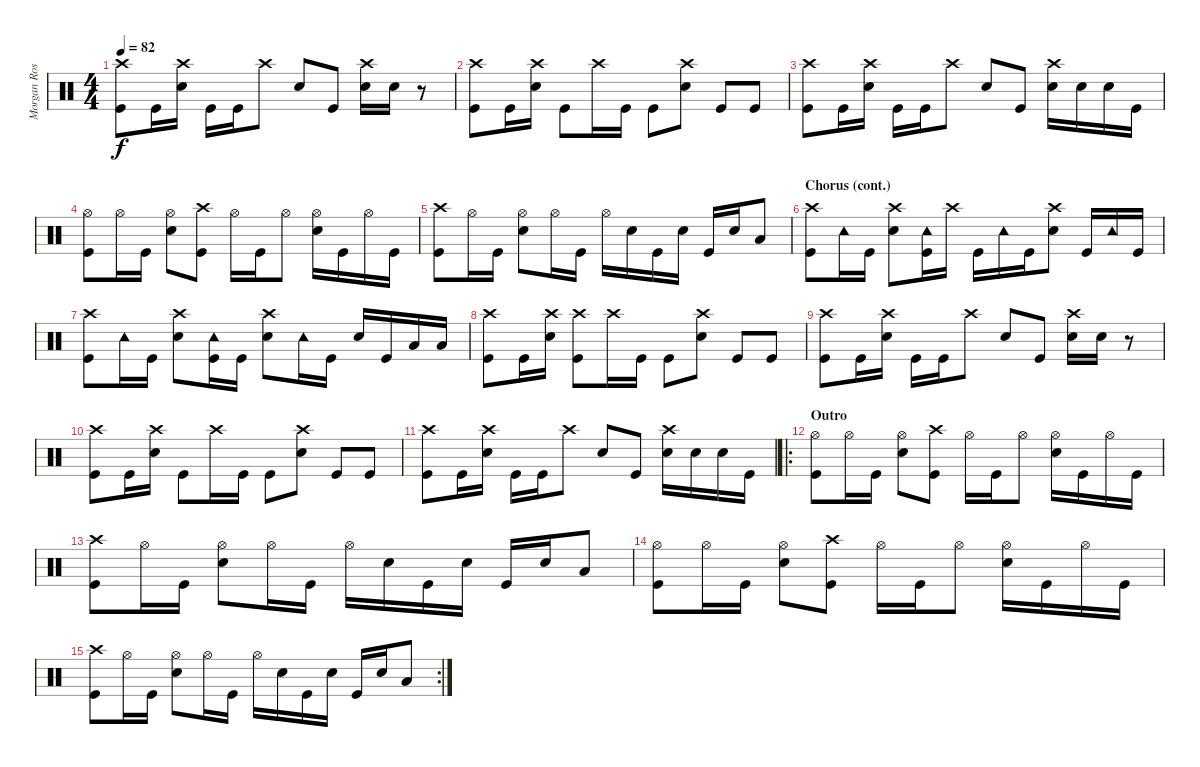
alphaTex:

\track ("Morgan Rose" "Morgan Ros") {instrument percussion}
\staff {score}
\articulation defaults
\ts (4 4)
\tempo 82
\clef neutral
\ks c
("Crash high (hit)" "Kick (hit)").8{dy f} "Kick (hit)".16 ("Crash high (hit)" "Snare (hit) 2").16 "Kick (hit)".16 "Kick (hit)".16 "Crash high (hit)".8 "Snare (hit) 2".8 "Kick (hit)".8 ("Crash high (hit)" "Snare (hit) 2").16 "Snare (hit) 2".16 r.8 |
("Crash high (hit)" "Kick (hit)").8 "Kick (hit)".16 ("Crash high (hit)" "Snare (hit) 2").16 "Kick (hit)".8 "Crash high (hit)".16 "Kick (hit)".16 "Kick (hit)".8 ("Crash high (hit)" "Snare (hit) 2").8 "Kick (hit)".8 "Kick (hit)".8 |
("Crash high (hit)" "Kick (hit)").8 "Kick (hit)".16 ("Crash high (hit)" "Snare (hit) 2").16 "Kick (hit)".16 "Kick (hit)".16 "Crash high (hit)".8 "Snare (hit) 2".8 "Kick (hit)".8 ("Crash high (hit)" "Snare (hit) 2").16 "Snare (hit) 2".16 "Snare (hit) 2".16 "Kick (hit)".16 |
("Hi-Hat (open)" "Kick (hit)").8 "Hi-Hat (open)".16 "Kick (hit)".16 ("Hi-Hat (open)" "Snare (hit) 2").8 ("Crash high (hit)" "Kick (hit)").8 "Hi-Hat (open)".16 "Kick (hit)".16 "Hi-Hat (open)".8 ("Hi-Hat (open)" "Snare (hit) 2").16 "Kick (hit)".16 "Hi-Hat (open)".16 "Kick (hit)".16 |
("Crash high (hit)" "Kick (hit)").8 "Hi-Hat (open)".16 "Kick (hit)".16 ("Hi-Hat (open)" "Snare (hit) 2").8 "Hi-Hat (open)".16 "Kick (hit)".16 "Hi-Hat (open)".16 "Snare (hit) 2".16 "Kick (hit)".16 "Snare (hit) 2".16 "Kick (hit)".16 "Snare (hit) 2".16 "Low Tom (hit)".8 |
\section ("" "Chorus (cont.)")
("Crash high (hit)" "Kick (hit)").8 "Tambourine (hit)".16 "Kick (hit)".16 ("Crash high (hit)" "Snare (hit) 2").8 ("Tambourine (hit)" "Kick (hit)").16 "Crash high (hit)".16 "Kick (hit)".16 "Tambourine (hit)".16 "Kick (hit)".16 ("Crash high (hit)" "Snare (hit) 2").8 "Kick (hit)".16 "Tambourine (hit)".16 "Kick (hit)".16 |
("Crash high (hit)" "Kick (hit)").8 "Tambourine (hit)".16 "Kick (hit)".16 ("Crash high (hit)" "Snare (hit) 2").8 ("Tambourine (hit)" "Kick (hit)").16 "Kick (hit)".16 ("Crash high (hit)" "Snare (hit) 2").8 "Tambourine (hit)".16 "Kick (hit)".16 "Snare (hit) 2".16 "Kick (hit)".16 "Low Tom (hit)".16 "Low Tom (hit)".16 |
("Crash high (hit)" "Kick (hit)").8 "Kick (hit)".16 ("Crash high (hit)" "Snare (hit) 2").16 ("Crash high (hit)" "Kick (hit)").8 "Crash high (hit)".16 "Kick (hit)".16 "Kick (hit)".8 ("Crash high (hit)" "Snare (hit) 2").8 "Kick (hit)".8 "Kick (hit)".8 |
("Crash high (hit)" "Kick (hit)").8 "Kick (hit)".16 ("Crash high (hit)" "Snare (hit) 2").16 "Kick (hit)".16 "Kick (hit)".16 "Crash high (hit)".8 "Snare (hit) 2".8 "Kick (hit)".8 ("Crash high (hit)" "Snare (hit) 2").16 "Snare (hit) 2".16 r.8 |
("Crash high (hit)" "Kick (hit)").8 "Kick (hit)".16 ("Crash high (hit)" "Snare (hit) 2").16 "Kick (hit)".8 "Crash high (hit)".16 "Kick (hit)".16 "Kick (hit)".8 ("Crash high (hit)" "Snare (hit) 2").8 "Kick (hit)".8 "Kick (hit)".8 |
("Crash high (hit)" "Kick (hit)").8 "Kick (hit)".16 ("Crash high (hit)" "Snare (hit) 2").16 "Kick (hit)".16 "Kick (hit)".16 "Crash high (hit)".8 "Snare (hit) 2".8 "Kick (hit)".8 ("Crash high (hit)" "Snare (hit) 2").16 "Snare (hit) 2".16 "Snare (hit) 2".16 "Kick (hit)".16 |
\ro
\section ("" "Outro")
("Hi-Hat (open)" "Kick (hit)").8 "Hi-Hat (open)".16 "Kick (hit)".16 ("Hi-Hat (open)" "Snare (hit) 2").8 ("Crash high (hit)" "Kick (hit)").8 "Hi-Hat (open)".16 "Kick (hit)".16 "Hi-Hat (open)".8 ("Hi-Hat (open)" "Snare (hit) 2").16 "Kick (hit)".16 "Hi-Hat (open)".16 "Kick (hit)".16 |
("Crash high (hit)" "Kick (hit)").8 "Hi-Hat (open)".16 "Kick (hit)".16 ("Hi-Hat (open)" "Snare (hit) 2").8 "Hi-Hat (open)".16 "Kick (hit)".16 "Hi-Hat (open)".16 "Snare (hit) 2".16 "Kick (hit)".16 "Snare (hit) 2".16 "Kick (hit)".16 "Snare (hit) 2".16 "Low Tom (hit)".8 |
("Hi-Hat (open)" "Kick (hit)").8 "Hi-Hat (open)".16 "Kick (hit)".16 ("Hi-Hat (open)" "Snare (hit) 2").8 ("Crash high (hit)" "Kick (hit)").8 "Hi-Hat (open)".16 "Kick (hit)".16 "Hi-Hat (open)".8 ("Hi-Hat (open)" "Snare (hit) 2").16 "Kick (hit)".16 "Hi-Hat (open)".16 "Kick (hit)".16 |
\rc 2
("Crash high (hit)" "Kick (hit)").8 "Hi-Hat (open)".16 "Kick (hit)".16 ("Hi-Hat (open)" "Snare (hit) 2").8 "Hi-Hat (open)".16 "Kick (hit)".16 "Hi-Hat (open)".16 "Snare (hit) 2".16 "Kick (hit)".16 "Snare (hit) 2".16 "Kick (hit)".16 "Snare (hit) 2".16 "Low Tom (hit)".8
